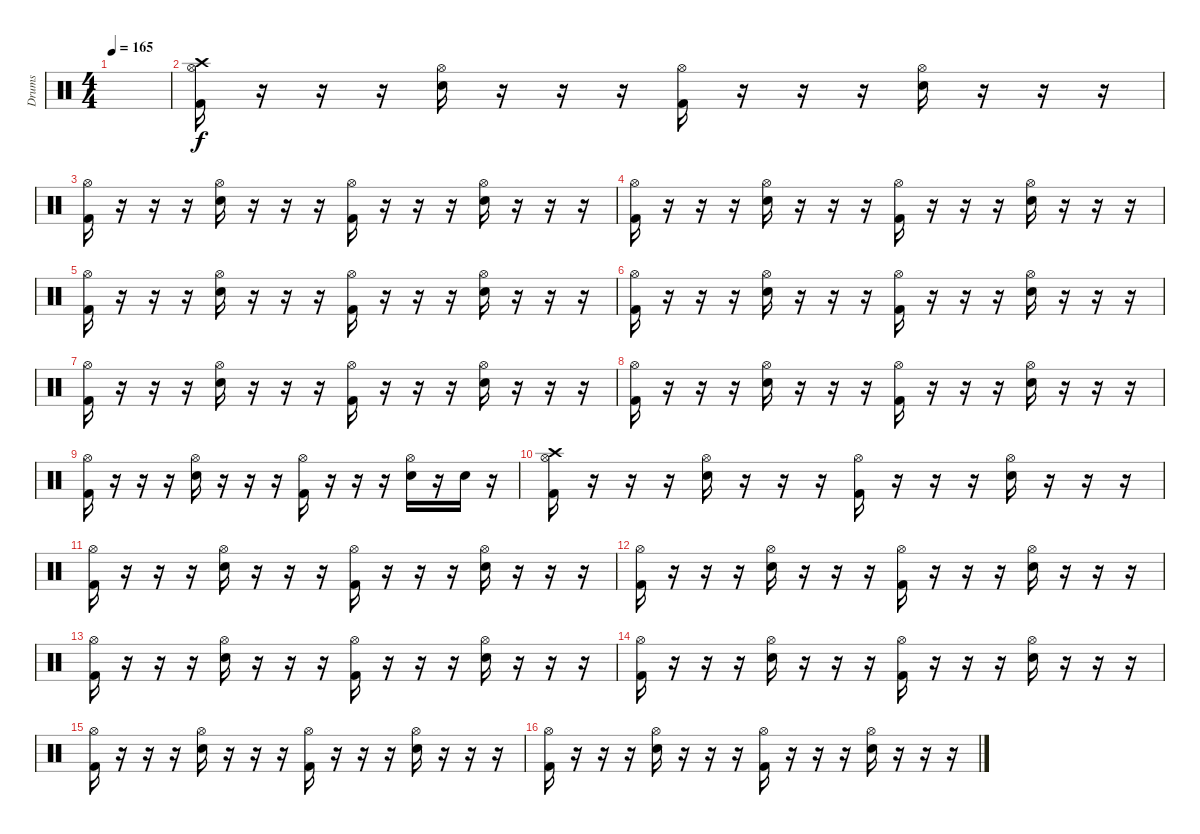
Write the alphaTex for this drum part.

\track ("Drums" "Drums") {instrument percussion}
\staff {score}
\articulation defaults
\ts (4 4)
\tempo 165
\clef neutral
\ks c
|
("Hi-Hat (open)" "Crash high (hit)" "Kick (hit) 2").16 r.16 r.16 r.16 ("Hi-Hat (open)" "Electric Snare (hit)").16 r.16 r.16 r.16 ("Hi-Hat (open)" "Kick (hit) 2").16 r.16 r.16 r.16 ("Hi-Hat (open)" "Electric Snare (hit)").16 r.16 r.16 r.16 |
("Hi-Hat (open)" "Kick (hit) 2").16 r.16 r.16 r.16 ("Hi-Hat (open)" "Electric Snare (hit)").16 r.16 r.16 r.16 ("Hi-Hat (open)" "Kick (hit) 2").16 r.16 r.16 r.16 ("Hi-Hat (open)" "Electric Snare (hit)").16 r.16 r.16 r.16 |
("Hi-Hat (open)" "Kick (hit) 2").16 r.16 r.16 r.16 ("Hi-Hat (open)" "Electric Snare (hit)").16 r.16 r.16 r.16 ("Hi-Hat (open)" "Kick (hit) 2").16 r.16 r.16 r.16 ("Hi-Hat (open)" "Electric Snare (hit)").16 r.16 r.16 r.16 |
("Hi-Hat (open)" "Kick (hit) 2").16 r.16 r.16 r.16 ("Hi-Hat (open)" "Electric Snare (hit)").16 r.16 r.16 r.16 ("Hi-Hat (open)" "Kick (hit) 2").16 r.16 r.16 r.16 ("Hi-Hat (open)" "Electric Snare (hit)").16 r.16 r.16 r.16 |
("Hi-Hat (open)" "Kick (hit) 2").16 r.16 r.16 r.16 ("Hi-Hat (open)" "Electric Snare (hit)").16 r.16 r.16 r.16 ("Hi-Hat (open)" "Kick (hit) 2").16 r.16 r.16 r.16 ("Hi-Hat (open)" "Electric Snare (hit)").16 r.16 r.16 r.16 |
("Hi-Hat (open)" "Kick (hit) 2").16 r.16 r.16 r.16 ("Hi-Hat (open)" "Electric Snare (hit)").16 r.16 r.16 r.16 ("Hi-Hat (open)" "Kick (hit) 2").16 r.16 r.16 r.16 ("Hi-Hat (open)" "Electric Snare (hit)").16 r.16 r.16 r.16 |
("Hi-Hat (open)" "Kick (hit) 2").16 r.16 r.16 r.16 ("Hi-Hat (open)" "Electric Snare (hit)").16 r.16 r.16 r.16 ("Hi-Hat (open)" "Kick (hit) 2").16 r.16 r.16 r.16 ("Hi-Hat (open)" "Electric Snare (hit)").16 r.16 r.16 r.16 |
("Hi-Hat (open)" "Kick (hit) 2").16 r.16 r.16 r.16 ("Hi-Hat (open)" "Electric Snare (hit)").16 r.16 r.16 r.16 ("Hi-Hat (open)" "Kick (hit) 2").16 r.16 r.16 r.16 ("Hi-Hat (open)" "Electric Snare (hit)").16 r.16 "Electric Snare (hit)".16 r.16 |
("Hi-Hat (open)" "Crash high (hit)" "Kick (hit) 2").16 r.16 r.16 r.16 ("Hi-Hat (open)" "Electric Snare (hit)").16 r.16 r.16 r.16 ("Hi-Hat (open)" "Kick (hit) 2").16 r.16 r.16 r.16 ("Hi-Hat (open)" "Electric Snare (hit)").16 r.16 r.16 r.16 |
("Hi-Hat (open)" "Kick (hit) 2").16 r.16 r.16 r.16 ("Hi-Hat (open)" "Electric Snare (hit)").16 r.16 r.16 r.16 ("Hi-Hat (open)" "Kick (hit) 2").16 r.16 r.16 r.16 ("Hi-Hat (open)" "Electric Snare (hit)").16 r.16 r.16 r.16 |
("Hi-Hat (open)" "Kick (hit) 2").16 r.16 r.16 r.16 ("Hi-Hat (open)" "Electric Snare (hit)").16 r.16 r.16 r.16 ("Hi-Hat (open)" "Kick (hit) 2").16 r.16 r.16 r.16 ("Hi-Hat (open)" "Electric Snare (hit)").16 r.16 r.16 r.16 |
("Hi-Hat (open)" "Kick (hit) 2").16 r.16 r.16 r.16 ("Hi-Hat (open)" "Electric Snare (hit)").16 r.16 r.16 r.16 ("Hi-Hat (open)" "Kick (hit) 2").16 r.16 r.16 r.16 ("Hi-Hat (open)" "Electric Snare (hit)").16 r.16 r.16 r.16 |
("Hi-Hat (open)" "Kick (hit) 2").16 r.16 r.16 r.16 ("Hi-Hat (open)" "Electric Snare (hit)").16 r.16 r.16 r.16 ("Hi-Hat (open)" "Kick (hit) 2").16 r.16 r.16 r.16 ("Hi-Hat (open)" "Electric Snare (hit)").16 r.16 r.16 r.16 |
("Hi-Hat (open)" "Kick (hit) 2").16 r.16 r.16 r.16 ("Hi-Hat (open)" "Electric Snare (hit)").16 r.16 r.16 r.16 ("Hi-Hat (open)" "Kick (hit) 2").16 r.16 r.16 r.16 ("Hi-Hat (open)" "Electric Snare (hit)").16 r.16 r.16 r.16 |
("Hi-Hat (open)" "Kick (hit) 2").16 r.16 r.16 r.16 ("Hi-Hat (open)" "Electric Snare (hit)").16 r.16 r.16 r.16 ("Hi-Hat (open)" "Kick (hit) 2").16 r.16 r.16 r.16 ("Hi-Hat (open)" "Electric Snare (hit)").16 r.16 r.16 r.16
